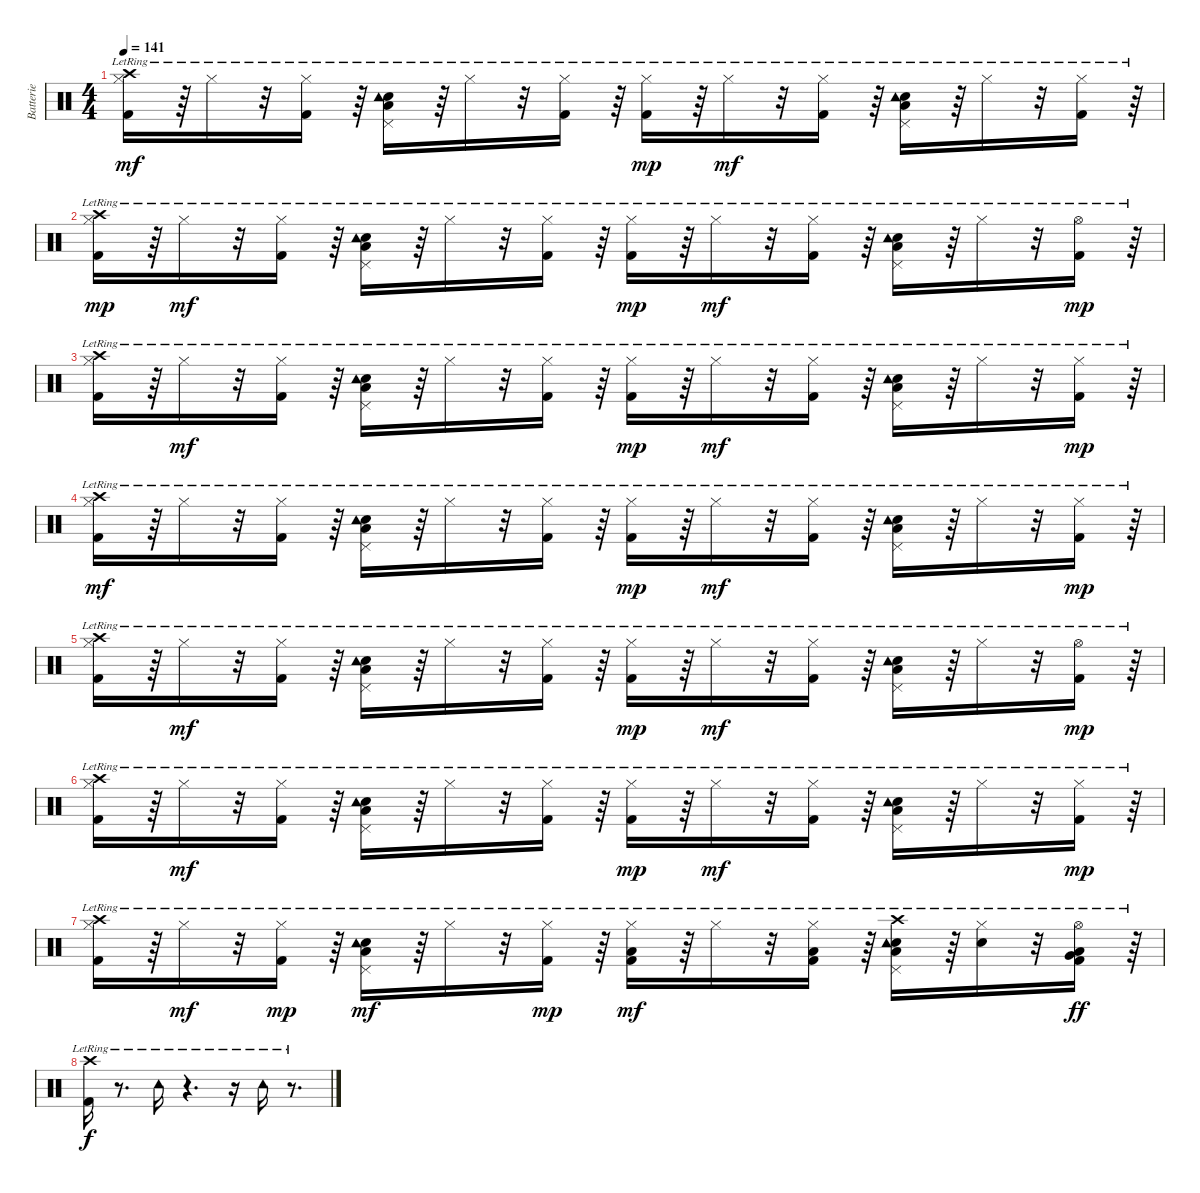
\track ("Batterie" "Batterie") {instrument percussion}
\staff {score}
\articulation defaults
\ts (4 4)
\tempo 141
\clef neutral
\ks c
("Hi-Hat (closed)"{lr} "Crash high (hit)"{lr} "Kick (hit) 2"{lr}).16{dy mf} r.64 "Hi-Hat (closed)"{lr}.16 r.32 ("Hi-Hat (closed)"{lr} "Kick (hit) 2"{lr}).16 r.64 ("Pedal Hi-Hat (hit)"{lr} "Snare (hit) 2"{lr} "Low Floor Tom (hit)"{lr} "Tambourine (hit)"{lr}).16 r.64 "Hi-Hat (closed)"{lr}.16 r.32 ("Hi-Hat (closed)"{lr} "Kick (hit) 2"{lr}).16 r.64 ("Hi-Hat (closed)"{lr} "Kick (hit) 2"{lr}).16{dy mp} r.64 "Hi-Hat (closed)"{lr}.16{dy mf} r.32 ("Hi-Hat (closed)"{lr} "Kick (hit) 2"{lr}).16 r.64 ("Pedal Hi-Hat (hit)"{lr} "Snare (hit) 2"{lr} "Low Floor Tom (hit)"{lr} "Tambourine (hit)"{lr}).16 r.64 "Hi-Hat (closed)"{lr}.16 r.32 ("Hi-Hat (closed)"{lr} "Kick (hit) 2"{lr}).16 r.64 |
("Hi-Hat (closed)"{lr} "Crash high (hit)"{lr} "Kick (hit) 2"{lr}).16{dy mp} r.64 "Hi-Hat (closed)"{lr}.16{dy mf} r.32 ("Hi-Hat (closed)"{lr} "Kick (hit) 2"{lr}).16 r.64 ("Pedal Hi-Hat (hit)"{lr} "Snare (hit) 2"{lr} "Low Floor Tom (hit)"{lr} "Tambourine (hit)"{lr}).16 r.64 "Hi-Hat (closed)"{lr}.16 r.32 ("Hi-Hat (closed)"{lr} "Kick (hit) 2"{lr}).16 r.64 ("Hi-Hat (closed)"{lr} "Kick (hit) 2"{lr}).16{dy mp} r.64 "Hi-Hat (closed)"{lr}.16{dy mf} r.32 ("Hi-Hat (closed)"{lr} "Kick (hit) 2"{lr}).16 r.64 ("Pedal Hi-Hat (hit)"{lr} "Snare (hit) 2"{lr} "Low Floor Tom (hit)"{lr} "Tambourine (hit)"{lr}).16 r.64 "Hi-Hat (closed)"{lr}.16 r.32 ("Hi-Hat (open)"{lr} "Kick (hit) 2"{lr}).16{dy mp} r.64 |
("Hi-Hat (closed)"{lr} "Crash high (hit)"{lr} "Kick (hit) 2"{lr}).16 r.64 "Hi-Hat (closed)"{lr}.16{dy mf} r.32 ("Hi-Hat (closed)"{lr} "Kick (hit) 2"{lr}).16 r.64 ("Pedal Hi-Hat (hit)"{lr} "Snare (hit) 2"{lr} "Low Floor Tom (hit)"{lr} "Tambourine (hit)"{lr}).16 r.64 "Hi-Hat (closed)"{lr}.16 r.32 ("Hi-Hat (closed)"{lr} "Kick (hit) 2"{lr}).16 r.64 ("Hi-Hat (closed)"{lr} "Kick (hit) 2"{lr}).16{dy mp} r.64 "Hi-Hat (closed)"{lr}.16{dy mf} r.32 ("Hi-Hat (closed)"{lr} "Kick (hit) 2"{lr}).16 r.64 ("Pedal Hi-Hat (hit)"{lr} "Snare (hit) 2"{lr} "Low Floor Tom (hit)"{lr} "Tambourine (hit)"{lr}).16 r.64 "Hi-Hat (closed)"{lr}.16 r.32 ("Hi-Hat (closed)"{lr} "Kick (hit) 2"{lr}).16{dy mp} r.64 |
("Hi-Hat (closed)"{lr} "Crash high (hit)"{lr} "Kick (hit) 2"{lr}).16{dy mf} r.64 "Hi-Hat (closed)"{lr}.16 r.32 ("Hi-Hat (closed)"{lr} "Kick (hit) 2"{lr}).16 r.64 ("Pedal Hi-Hat (hit)"{lr} "Snare (hit) 2"{lr} "Low Floor Tom (hit)"{lr} "Tambourine (hit)"{lr}).16 r.64 "Hi-Hat (closed)"{lr}.16 r.32 ("Hi-Hat (closed)"{lr} "Kick (hit) 2"{lr}).16 r.64 ("Hi-Hat (closed)"{lr} "Kick (hit) 2"{lr}).16{dy mp} r.64 "Hi-Hat (closed)"{lr}.16{dy mf} r.32 ("Hi-Hat (closed)"{lr} "Kick (hit) 2"{lr}).16 r.64 ("Pedal Hi-Hat (hit)"{lr} "Snare (hit) 2"{lr} "Low Floor Tom (hit)"{lr} "Tambourine (hit)"{lr}).16 r.64 "Hi-Hat (closed)"{lr}.16 r.32 ("Hi-Hat (closed)"{lr} "Kick (hit) 2"{lr}).16{dy mp} r.64 |
("Hi-Hat (closed)"{lr} "Crash high (hit)"{lr} "Kick (hit) 2"{lr}).16 r.64 "Hi-Hat (closed)"{lr}.16{dy mf} r.32 ("Hi-Hat (closed)"{lr} "Kick (hit) 2"{lr}).16 r.64 ("Pedal Hi-Hat (hit)"{lr} "Snare (hit) 2"{lr} "Low Floor Tom (hit)"{lr} "Tambourine (hit)"{lr}).16 r.64 "Hi-Hat (closed)"{lr}.16 r.32 ("Hi-Hat (closed)"{lr} "Kick (hit) 2"{lr}).16 r.64 ("Hi-Hat (closed)"{lr} "Kick (hit) 2"{lr}).16{dy mp} r.64 "Hi-Hat (closed)"{lr}.16{dy mf} r.32 ("Hi-Hat (closed)"{lr} "Kick (hit) 2"{lr}).16 r.64 ("Pedal Hi-Hat (hit)"{lr} "Snare (hit) 2"{lr} "Low Floor Tom (hit)"{lr} "Tambourine (hit)"{lr}).16 r.64 "Hi-Hat (closed)"{lr}.16 r.32 ("Hi-Hat (open)"{lr} "Kick (hit) 2"{lr}).16{dy mp} r.64 |
("Hi-Hat (closed)"{lr} "Crash high (hit)"{lr} "Kick (hit) 2"{lr}).16 r.64 "Hi-Hat (closed)"{lr}.16{dy mf} r.32 ("Hi-Hat (closed)"{lr} "Kick (hit) 2"{lr}).16 r.64 ("Pedal Hi-Hat (hit)"{lr} "Snare (hit) 2"{lr} "Low Floor Tom (hit)"{lr} "Tambourine (hit)"{lr}).16 r.64 "Hi-Hat (closed)"{lr}.16 r.32 ("Hi-Hat (closed)"{lr} "Kick (hit) 2"{lr}).16 r.64 ("Hi-Hat (closed)"{lr} "Kick (hit) 2"{lr}).16{dy mp} r.64 "Hi-Hat (closed)"{lr}.16{dy mf} r.32 ("Hi-Hat (closed)"{lr} "Kick (hit) 2"{lr}).16 r.64 ("Pedal Hi-Hat (hit)"{lr} "Snare (hit) 2"{lr} "Low Floor Tom (hit)"{lr} "Tambourine (hit)"{lr}).16 r.64 "Hi-Hat (closed)"{lr}.16 r.32 ("Hi-Hat (closed)"{lr} "Kick (hit) 2"{lr}).16{dy mp} r.64 |
("Hi-Hat (closed)"{lr} "Crash high (hit)"{lr} "Kick (hit) 2"{lr}).16 r.64 "Hi-Hat (closed)"{lr}.16{dy mf} r.32 ("Hi-Hat (closed)"{lr} "Kick (hit) 2"{lr}).16{dy mp} r.64 ("Pedal Hi-Hat (hit)"{lr} "Snare (hit) 2"{lr} "Low Floor Tom (hit)"{lr} "Tambourine (hit)"{lr}).16{dy mf} r.64 "Hi-Hat (closed)"{lr}.16 r.32 ("Hi-Hat (closed)"{lr} "Kick (hit) 2"{lr}).16{dy mp} r.64 ("Hi-Hat (closed)"{lr} "Kick (hit) 2"{lr} "Low Floor Tom (hit)"{lr}).16{dy mf} r.64 "Hi-Hat (closed)"{lr}.16 r.32 ("Hi-Hat (closed)"{lr} "Kick (hit) 2"{lr} "Low Floor Tom (hit)"{lr}).16 r.64 ("Pedal Hi-Hat (hit)"{lr} "Crash high (hit)"{lr} "Snare (hit) 2"{lr} "Low Floor Tom (hit)"{lr} "Tambourine (hit)"{lr}).16 r.64 ("Hi-Hat (closed)"{lr} "Snare (hit) 2"{lr}).16 r.32 ("Very Low Tom (hit)"{lr} "Hi-Hat (open)"{lr} "Kick (hit) 2"{lr} "Low Floor Tom (hit)"{lr}).16{dy ff} r.64 |
("Crash high (hit)"{lr} "Kick (hit) 2"{lr}).16{dy f} r.8{d} "Tambourine (hit)"{lr}.16 r.4{d} r.16 "Tambourine (hit)"{lr}.16 r.8{d}
